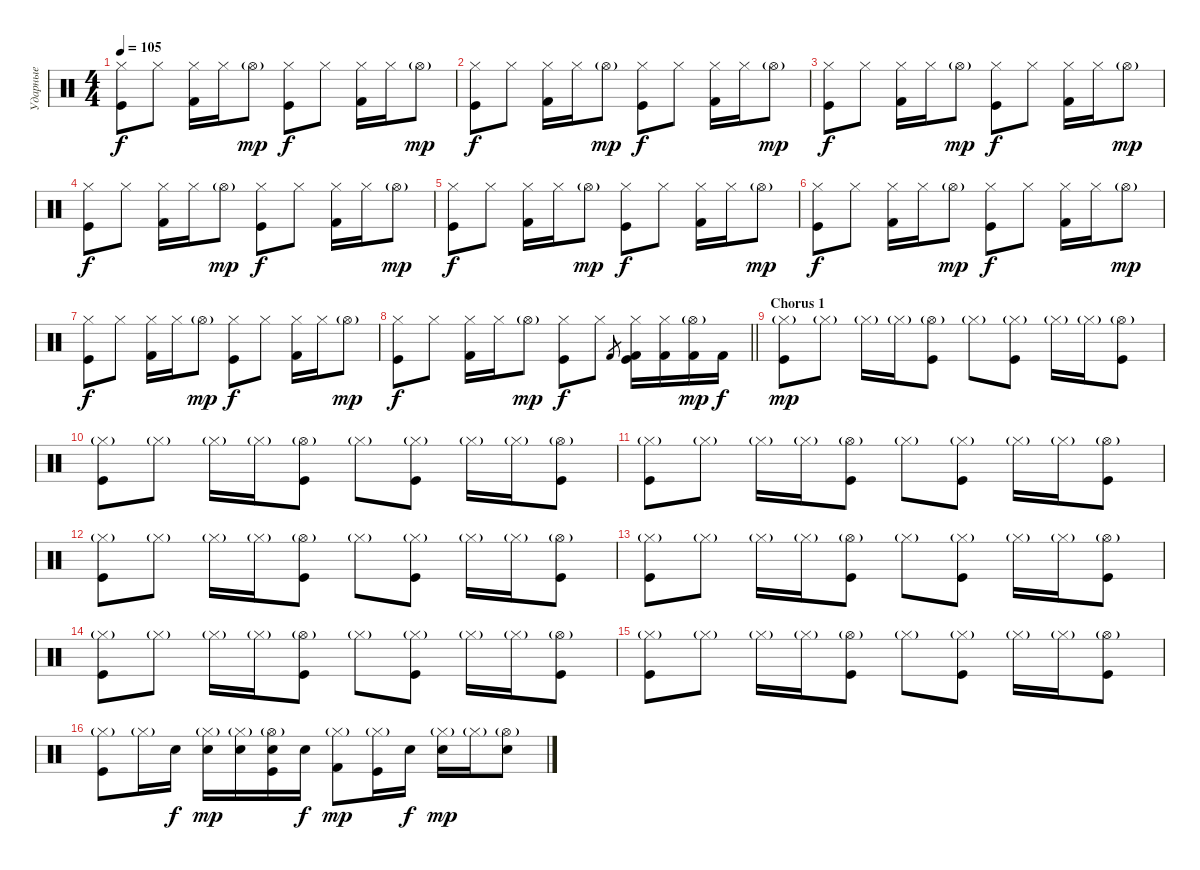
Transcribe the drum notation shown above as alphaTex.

\track ("Ударные" "Ударные") {instrument percussion}
\staff {score}
\articulation defaults
\ts (4 4)
\tempo 105
\clef neutral
\ks c
("Hi-Hat (closed)" "Kick (hit)").8{dy f} "Hi-Hat (closed)".8 ("Hi-Hat (closed)" "Kick (hit) 2").16 "Hi-Hat (closed)".16 "Hi-Hat (open)"{g}.8{dy mp} ("Hi-Hat (closed)" "Kick (hit)").8{dy f} "Hi-Hat (closed)".8 ("Hi-Hat (closed)" "Kick (hit) 2").16 "Hi-Hat (closed)".16 "Hi-Hat (open)"{g}.8{dy mp} |
("Hi-Hat (closed)" "Kick (hit)").8{dy f} "Hi-Hat (closed)".8 ("Hi-Hat (closed)" "Kick (hit) 2").16 "Hi-Hat (closed)".16 "Hi-Hat (open)"{g}.8{dy mp} ("Hi-Hat (closed)" "Kick (hit)").8{dy f} "Hi-Hat (closed)".8 ("Hi-Hat (closed)" "Kick (hit) 2").16 "Hi-Hat (closed)".16 "Hi-Hat (open)"{g}.8{dy mp} |
("Hi-Hat (closed)" "Kick (hit)").8{dy f} "Hi-Hat (closed)".8 ("Hi-Hat (closed)" "Kick (hit) 2").16 "Hi-Hat (closed)".16 "Hi-Hat (open)"{g}.8{dy mp} ("Hi-Hat (closed)" "Kick (hit)").8{dy f} "Hi-Hat (closed)".8 ("Hi-Hat (closed)" "Kick (hit) 2").16 "Hi-Hat (closed)".16 "Hi-Hat (open)"{g}.8{dy mp} |
("Hi-Hat (closed)" "Kick (hit)").8{dy f} "Hi-Hat (closed)".8 ("Hi-Hat (closed)" "Kick (hit) 2").16 "Hi-Hat (closed)".16 "Hi-Hat (open)"{g}.8{dy mp} ("Hi-Hat (closed)" "Kick (hit)").8{dy f} "Hi-Hat (closed)".8 ("Hi-Hat (closed)" "Kick (hit) 2").16 "Hi-Hat (closed)".16 "Hi-Hat (open)"{g}.8{dy mp} |
("Hi-Hat (closed)" "Kick (hit)").8{dy f} "Hi-Hat (closed)".8 ("Hi-Hat (closed)" "Kick (hit) 2").16 "Hi-Hat (closed)".16 "Hi-Hat (open)"{g}.8{dy mp} ("Hi-Hat (closed)" "Kick (hit)").8{dy f} "Hi-Hat (closed)".8 ("Hi-Hat (closed)" "Kick (hit) 2").16 "Hi-Hat (closed)".16 "Hi-Hat (open)"{g}.8{dy mp} |
("Hi-Hat (closed)" "Kick (hit)").8{dy f} "Hi-Hat (closed)".8 ("Hi-Hat (closed)" "Kick (hit) 2").16 "Hi-Hat (closed)".16 "Hi-Hat (open)"{g}.8{dy mp} ("Hi-Hat (closed)" "Kick (hit)").8{dy f} "Hi-Hat (closed)".8 ("Hi-Hat (closed)" "Kick (hit) 2").16 "Hi-Hat (closed)".16 "Hi-Hat (open)"{g}.8{dy mp} |
("Hi-Hat (closed)" "Kick (hit)").8{dy f} "Hi-Hat (closed)".8 ("Hi-Hat (closed)" "Kick (hit) 2").16 "Hi-Hat (closed)".16 "Hi-Hat (open)"{g}.8{dy mp} ("Hi-Hat (closed)" "Kick (hit)").8{dy f} "Hi-Hat (closed)".8 ("Hi-Hat (closed)" "Kick (hit) 2").16 "Hi-Hat (closed)".16 "Hi-Hat (open)"{g}.8{dy mp} |
\barLineRight lightlight
("Hi-Hat (closed)" "Kick (hit)").8{dy f} "Hi-Hat (closed)".8 ("Hi-Hat (closed)" "Kick (hit) 2").16 "Hi-Hat (closed)".16 "Hi-Hat (open)"{g}.8{dy mp} ("Hi-Hat (closed)" "Kick (hit)").8{dy f} "Hi-Hat (closed)".8 "Kick (hit) 2".8{gr} ("Hi-Hat (closed)" "Kick (hit) 2" "Kick (hit)").16 ("Hi-Hat (closed)" "Kick (hit) 2").16 ("Hi-Hat (open)"{g} "Kick (hit) 2").16{dy mp} "Kick (hit) 2".16{dy f} |
\section ("" "Chorus 1")
("Hi-Hat (closed)"{g} "Kick (hit)").8{dy mp} "Hi-Hat (closed)"{g}.8 "Hi-Hat (closed)"{g}.16 "Hi-Hat (closed)"{g}.16 ("Hi-Hat (open)"{g} "Kick (hit)").8 "Hi-Hat (closed)"{g}.8 ("Hi-Hat (closed)"{g} "Kick (hit)").8 "Hi-Hat (closed)"{g}.16 "Hi-Hat (closed)"{g}.16 ("Hi-Hat (open)"{g} "Kick (hit)").8 |
("Hi-Hat (closed)"{g} "Kick (hit)").8 "Hi-Hat (closed)"{g}.8 "Hi-Hat (closed)"{g}.16 "Hi-Hat (closed)"{g}.16 ("Hi-Hat (open)"{g} "Kick (hit)").8 "Hi-Hat (closed)"{g}.8 ("Hi-Hat (closed)"{g} "Kick (hit)").8 "Hi-Hat (closed)"{g}.16 "Hi-Hat (closed)"{g}.16 ("Hi-Hat (open)"{g} "Kick (hit)").8 |
("Hi-Hat (closed)"{g} "Kick (hit)").8 "Hi-Hat (closed)"{g}.8 "Hi-Hat (closed)"{g}.16 "Hi-Hat (closed)"{g}.16 ("Hi-Hat (open)"{g} "Kick (hit)").8 "Hi-Hat (closed)"{g}.8 ("Hi-Hat (closed)"{g} "Kick (hit)").8 "Hi-Hat (closed)"{g}.16 "Hi-Hat (closed)"{g}.16 ("Hi-Hat (open)"{g} "Kick (hit)").8 |
("Hi-Hat (closed)"{g} "Kick (hit)").8 "Hi-Hat (closed)"{g}.8 "Hi-Hat (closed)"{g}.16 "Hi-Hat (closed)"{g}.16 ("Hi-Hat (open)"{g} "Kick (hit)").8 "Hi-Hat (closed)"{g}.8 ("Hi-Hat (closed)"{g} "Kick (hit)").8 "Hi-Hat (closed)"{g}.16 "Hi-Hat (closed)"{g}.16 ("Hi-Hat (open)"{g} "Kick (hit)").8 |
("Hi-Hat (closed)"{g} "Kick (hit)").8 "Hi-Hat (closed)"{g}.8 "Hi-Hat (closed)"{g}.16 "Hi-Hat (closed)"{g}.16 ("Hi-Hat (open)"{g} "Kick (hit)").8 "Hi-Hat (closed)"{g}.8 ("Hi-Hat (closed)"{g} "Kick (hit)").8 "Hi-Hat (closed)"{g}.16 "Hi-Hat (closed)"{g}.16 ("Hi-Hat (open)"{g} "Kick (hit)").8 |
("Hi-Hat (closed)"{g} "Kick (hit)").8 "Hi-Hat (closed)"{g}.8 "Hi-Hat (closed)"{g}.16 "Hi-Hat (closed)"{g}.16 ("Hi-Hat (open)"{g} "Kick (hit)").8 "Hi-Hat (closed)"{g}.8 ("Hi-Hat (closed)"{g} "Kick (hit)").8 "Hi-Hat (closed)"{g}.16 "Hi-Hat (closed)"{g}.16 ("Hi-Hat (open)"{g} "Kick (hit)").8 |
("Hi-Hat (closed)"{g} "Kick (hit)").8 "Hi-Hat (closed)"{g}.8 "Hi-Hat (closed)"{g}.16 "Hi-Hat (closed)"{g}.16 ("Hi-Hat (open)"{g} "Kick (hit)").8 "Hi-Hat (closed)"{g}.8 ("Hi-Hat (closed)"{g} "Kick (hit)").8 "Hi-Hat (closed)"{g}.16 "Hi-Hat (closed)"{g}.16 ("Hi-Hat (open)"{g} "Kick (hit)").8 |
("Hi-Hat (closed)"{g} "Kick (hit)").8 "Hi-Hat (closed)"{g}.16 "Electric Snare (hit)".16{dy f} ("Snare (hit) 2" "Hi-Hat (closed)"{g}).16{dy mp} ("Snare (hit) 2" "Hi-Hat (closed)"{g}).16 ("Snare (hit) 2" "Hi-Hat (open)"{g} "Kick (hit)").16 "Snare (hit) 2".16{dy f} ("Kick (hit) 2" "Hi-Hat (closed)"{g}).8{dy mp} ("Hi-Hat (closed)"{g} "Kick (hit)").16 "Snare (hit) 2".16{dy f} ("Snare (hit) 2" "Hi-Hat (closed)"{g}).16{dy mp} "Hi-Hat (closed)"{g}.16 ("Snare (hit) 2" "Hi-Hat (open)"{g}).8
